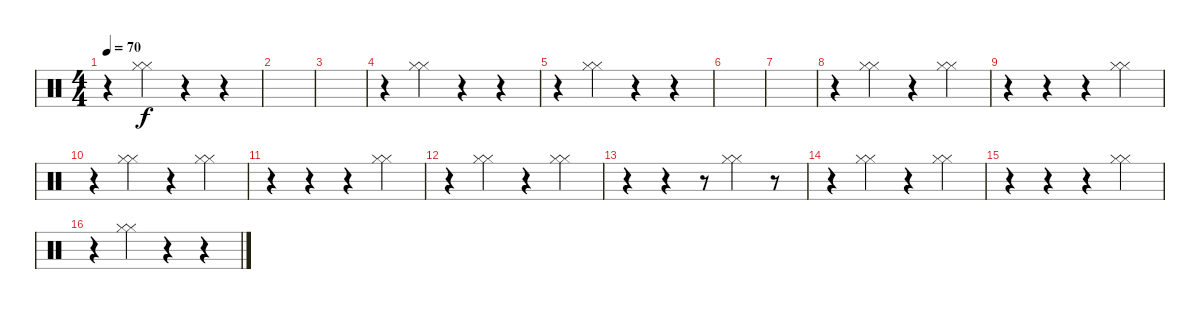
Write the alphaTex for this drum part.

\track "" {instrument percussion}
\staff {score}
\articulation defaults
\ts (4 4)
\tempo 70
\clef neutral
\ks c
r.4{dy f} ("Hi-Hat (closed)" "Hi-Hat (closed)").4 r.4 r.4 |
|
|
r.4 ("Hi-Hat (closed)" "Hi-Hat (closed)").4 r.4 r.4 |
r.4 ("Hi-Hat (closed)" "Hi-Hat (closed)").4 r.4 r.4 |
|
|
r.4 ("Hi-Hat (closed)" "Hi-Hat (closed)").4 r.4 ("Hi-Hat (closed)" "Hi-Hat (closed)").4 |
r.4 r.4 r.4 ("Hi-Hat (closed)" "Hi-Hat (closed)").4 |
r.4 ("Hi-Hat (closed)" "Hi-Hat (closed)").4 r.4 ("Hi-Hat (closed)" "Hi-Hat (closed)").4 |
r.4 r.4 r.4 ("Hi-Hat (closed)" "Hi-Hat (closed)").4 |
r.4 ("Hi-Hat (closed)" "Hi-Hat (closed)").4 r.4 ("Hi-Hat (closed)" "Hi-Hat (closed)").4 |
r.4 r.4 r.8 ("Hi-Hat (closed)" "Hi-Hat (closed)").4 r.8 |
r.4 ("Hi-Hat (closed)" "Hi-Hat (closed)").4 r.4 ("Hi-Hat (closed)" "Hi-Hat (closed)").4 |
r.4 r.4 r.4 ("Hi-Hat (closed)" "Hi-Hat (closed)").4 |
r.4 ("Hi-Hat (closed)" "Hi-Hat (closed)").4 r.4 r.4
